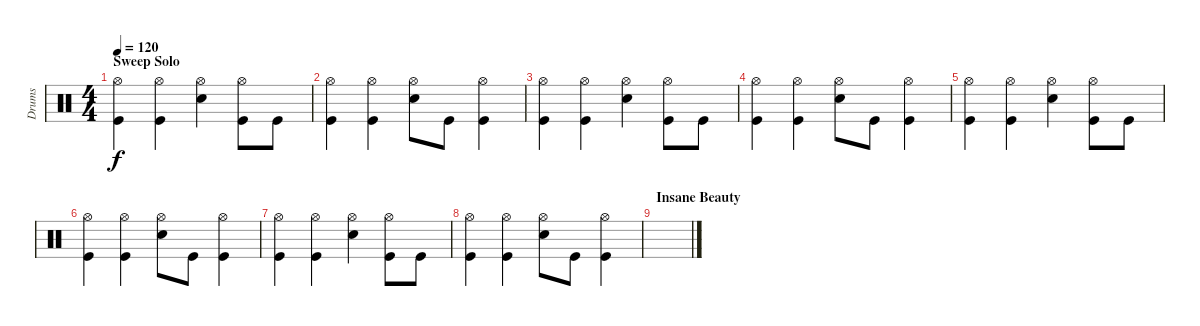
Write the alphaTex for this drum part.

\track ("Drums" "Drums") {instrument percussion}
\staff {score}
\articulation defaults
\ts (4 4)
\section ("" "Sweep Solo")
\tempo 120
\clef neutral
\ks c
("Hi-Hat (open)" "Kick (hit)").4{dy f} ("Hi-Hat (open)" "Kick (hit)").4 ("Hi-Hat (open)" "Snare (hit) 2").4 ("Hi-Hat (open)" "Kick (hit)").8 "Kick (hit)".8 |
("Hi-Hat (open)" "Kick (hit)").4 ("Hi-Hat (open)" "Kick (hit)").4 ("Hi-Hat (open)" "Snare (hit) 2").8 "Kick (hit)".8 ("Hi-Hat (open)" "Kick (hit)").4 |
("Hi-Hat (open)" "Kick (hit)").4 ("Hi-Hat (open)" "Kick (hit)").4 ("Hi-Hat (open)" "Snare (hit) 2").4 ("Hi-Hat (open)" "Kick (hit)").8 "Kick (hit)".8 |
("Hi-Hat (open)" "Kick (hit)").4 ("Hi-Hat (open)" "Kick (hit)").4 ("Hi-Hat (open)" "Snare (hit) 2").8 "Kick (hit)".8 ("Hi-Hat (open)" "Kick (hit)").4 |
("Hi-Hat (open)" "Kick (hit)").4 ("Hi-Hat (open)" "Kick (hit)").4 ("Hi-Hat (open)" "Snare (hit) 2").4 ("Hi-Hat (open)" "Kick (hit)").8 "Kick (hit)".8 |
("Hi-Hat (open)" "Kick (hit)").4 ("Hi-Hat (open)" "Kick (hit)").4 ("Hi-Hat (open)" "Snare (hit) 2").8 "Kick (hit)".8 ("Hi-Hat (open)" "Kick (hit)").4 |
("Hi-Hat (open)" "Kick (hit)").4 ("Hi-Hat (open)" "Kick (hit)").4 ("Hi-Hat (open)" "Snare (hit) 2").4 ("Hi-Hat (open)" "Kick (hit)").8 "Kick (hit)".8 |
("Hi-Hat (open)" "Kick (hit)").4 ("Hi-Hat (open)" "Kick (hit)").4 ("Hi-Hat (open)" "Snare (hit) 2").8 "Kick (hit)".8 ("Hi-Hat (open)" "Kick (hit)").4 |
\section ("" "Insane Beauty")
